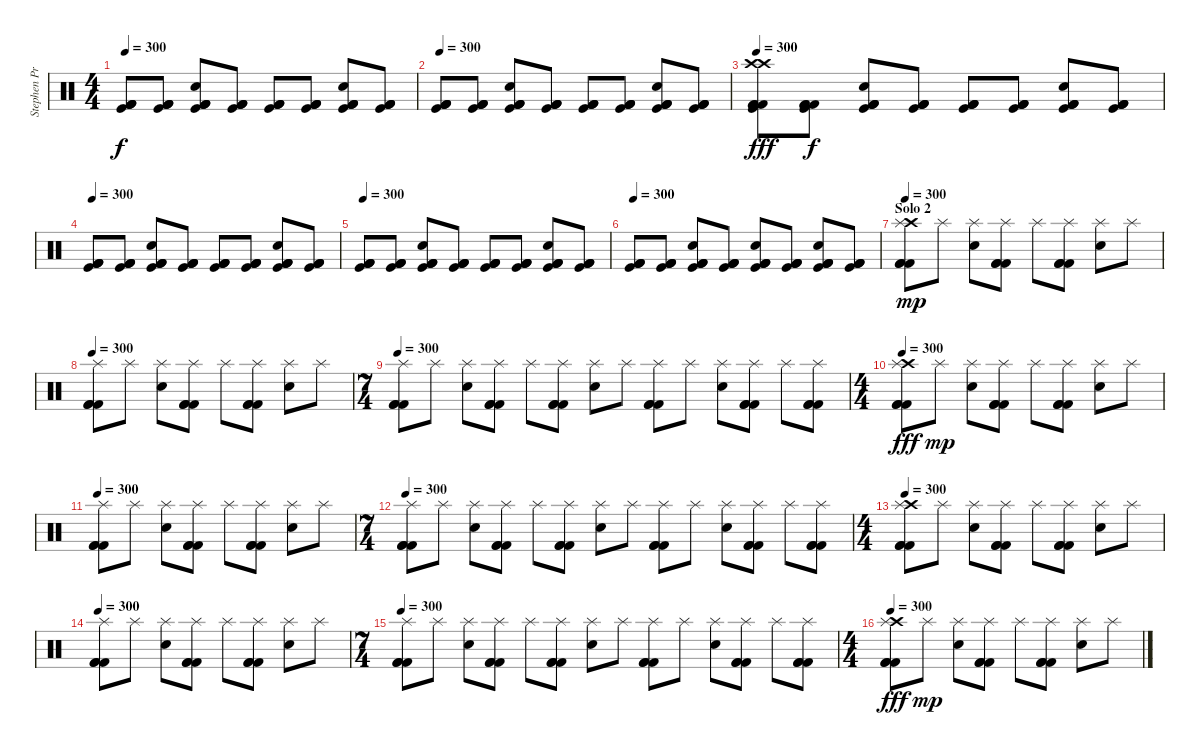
\track ("Stephen Priestly  (Drums)" "Stephen Pr") {instrument percussion}
\staff {score}
\articulation defaults
\ts (4 4)
\tempo 300
\clef neutral
\ks c
("Kick (hit)" "Kick (hit) 2" "Kick (hit) 2" "Kick (hit) 2").8{dy f} ("Kick (hit)" "Kick (hit) 2" "Kick (hit) 2" "Kick (hit) 2").8 ("Electric Snare (hit)" "Kick (hit)" "Kick (hit) 2" "Kick (hit) 2" "Kick (hit) 2").8 ("Kick (hit)" "Kick (hit) 2" "Kick (hit) 2" "Kick (hit) 2").8 ("Kick (hit)" "Kick (hit) 2" "Kick (hit) 2" "Kick (hit) 2").8 ("Kick (hit)" "Kick (hit) 2" "Kick (hit) 2" "Kick (hit) 2").8 ("Electric Snare (hit)" "Kick (hit)" "Kick (hit) 2" "Kick (hit) 2" "Kick (hit) 2").8 ("Kick (hit)" "Kick (hit) 2" "Kick (hit) 2" "Kick (hit) 2").8 |
\tempo 300
("Kick (hit)" "Kick (hit) 2" "Kick (hit) 2" "Kick (hit) 2").8 ("Kick (hit)" "Kick (hit) 2" "Kick (hit) 2" "Kick (hit) 2").8 ("Electric Snare (hit)" "Kick (hit)" "Kick (hit) 2" "Kick (hit) 2" "Kick (hit) 2").8 ("Kick (hit)" "Kick (hit) 2" "Kick (hit) 2" "Kick (hit) 2").8 ("Kick (hit)" "Kick (hit) 2" "Kick (hit) 2" "Kick (hit) 2").8 ("Kick (hit)" "Kick (hit) 2" "Kick (hit) 2" "Kick (hit) 2").8 ("Electric Snare (hit)" "Kick (hit)" "Kick (hit) 2" "Kick (hit) 2" "Kick (hit) 2").8 ("Kick (hit)" "Kick (hit) 2" "Kick (hit) 2" "Kick (hit) 2").8 |
\tempo 300
("Crash high (hit)" "Crash high (hit)" "Kick (hit)" "Kick (hit) 2" "Kick (hit) 2" "Kick (hit) 2").8{dy fff} ("Kick (hit)" "Kick (hit) 2" "Kick (hit) 2" "Kick (hit) 2").8{dy f} ("Electric Snare (hit)" "Kick (hit)" "Kick (hit) 2" "Kick (hit) 2" "Kick (hit) 2").8 ("Kick (hit)" "Kick (hit) 2" "Kick (hit) 2" "Kick (hit) 2").8 ("Kick (hit)" "Kick (hit) 2" "Kick (hit) 2" "Kick (hit) 2").8 ("Kick (hit)" "Kick (hit) 2" "Kick (hit) 2" "Kick (hit) 2").8 ("Electric Snare (hit)" "Kick (hit)" "Kick (hit) 2" "Kick (hit) 2" "Kick (hit) 2").8 ("Kick (hit)" "Kick (hit) 2" "Kick (hit) 2" "Kick (hit) 2").8 |
\tempo 300
("Kick (hit)" "Kick (hit) 2" "Kick (hit) 2" "Kick (hit) 2").8 ("Kick (hit)" "Kick (hit) 2" "Kick (hit) 2" "Kick (hit) 2").8 ("Electric Snare (hit)" "Kick (hit)" "Kick (hit) 2" "Kick (hit) 2" "Kick (hit) 2").8 ("Kick (hit)" "Kick (hit) 2" "Kick (hit) 2" "Kick (hit) 2").8 ("Kick (hit)" "Kick (hit) 2" "Kick (hit) 2" "Kick (hit) 2").8 ("Kick (hit)" "Kick (hit) 2" "Kick (hit) 2" "Kick (hit) 2").8 ("Electric Snare (hit)" "Kick (hit)" "Kick (hit) 2" "Kick (hit) 2" "Kick (hit) 2").8 ("Kick (hit)" "Kick (hit) 2" "Kick (hit) 2" "Kick (hit) 2").8 |
\tempo 300
("Kick (hit)" "Kick (hit) 2" "Kick (hit) 2" "Kick (hit) 2").8 ("Kick (hit)" "Kick (hit) 2" "Kick (hit) 2" "Kick (hit) 2").8 ("Electric Snare (hit)" "Kick (hit)" "Kick (hit) 2" "Kick (hit) 2" "Kick (hit) 2").8 ("Kick (hit)" "Kick (hit) 2" "Kick (hit) 2" "Kick (hit) 2").8 ("Kick (hit)" "Kick (hit) 2" "Kick (hit) 2" "Kick (hit) 2").8 ("Kick (hit)" "Kick (hit) 2" "Kick (hit) 2" "Kick (hit) 2").8 ("Electric Snare (hit)" "Kick (hit)" "Kick (hit) 2" "Kick (hit) 2" "Kick (hit) 2").8 ("Kick (hit)" "Kick (hit) 2" "Kick (hit) 2" "Kick (hit) 2").8 |
\tempo 300
("Kick (hit)" "Kick (hit) 2" "Kick (hit) 2" "Kick (hit) 2").8 ("Kick (hit)" "Kick (hit) 2" "Kick (hit) 2" "Kick (hit) 2").8 ("Electric Snare (hit)" "Kick (hit)" "Kick (hit) 2" "Kick (hit) 2" "Kick (hit) 2").8 ("Kick (hit)" "Kick (hit) 2" "Kick (hit) 2" "Kick (hit) 2").8 ("Electric Snare (hit)" "Kick (hit)" "Kick (hit) 2" "Kick (hit) 2" "Kick (hit) 2").8 ("Kick (hit)" "Kick (hit) 2" "Kick (hit) 2" "Kick (hit) 2").8 ("Electric Snare (hit)" "Kick (hit)" "Kick (hit) 2" "Kick (hit) 2" "Kick (hit) 2").8 ("Kick (hit)" "Kick (hit) 2" "Kick (hit) 2" "Kick (hit) 2").8 |
\section ("" "Solo 2")
\tempo 128
\tempo 300
("Crash high (hit)" "Splash (hit)" "Kick (hit) 2" "Kick (hit) 2" "Kick (hit) 2").8{dy mp} "Splash (hit)".8 ("Splash (hit)" "Electric Snare (hit)").8 ("Splash (hit)" "Kick (hit) 2" "Kick (hit) 2" "Kick (hit) 2").8 "Splash (hit)".8 ("Splash (hit)" "Kick (hit) 2" "Kick (hit) 2" "Kick (hit) 2").8 ("Splash (hit)" "Electric Snare (hit)").8 "Splash (hit)".8 |
\tempo 300
("Splash (hit)" "Kick (hit) 2" "Kick (hit) 2" "Kick (hit) 2").8 "Splash (hit)".8 ("Splash (hit)" "Electric Snare (hit)").8 ("Splash (hit)" "Kick (hit) 2" "Kick (hit) 2" "Kick (hit) 2").8 "Splash (hit)".8 ("Splash (hit)" "Kick (hit) 2" "Kick (hit) 2" "Kick (hit) 2").8 ("Splash (hit)" "Electric Snare (hit)").8 "Splash (hit)".8 |
\ts (7 4)
\tempo 300
("Splash (hit)" "Kick (hit) 2" "Kick (hit) 2" "Kick (hit) 2").8 "Splash (hit)".8 ("Splash (hit)" "Electric Snare (hit)").8 ("Splash (hit)" "Kick (hit) 2" "Kick (hit) 2" "Kick (hit) 2").8 "Splash (hit)".8 ("Splash (hit)" "Kick (hit) 2" "Kick (hit) 2" "Kick (hit) 2").8 ("Splash (hit)" "Electric Snare (hit)").8 "Splash (hit)".8 ("Splash (hit)" "Kick (hit) 2" "Kick (hit) 2" "Kick (hit) 2").8 "Splash (hit)".8 ("Splash (hit)" "Electric Snare (hit)").8 ("Splash (hit)" "Kick (hit) 2" "Kick (hit) 2" "Kick (hit) 2").8 "Splash (hit)".8 ("Splash (hit)" "Kick (hit) 2" "Kick (hit) 2" "Kick (hit) 2").8 |
\ts (4 4)
\tempo 300
("Crash high (hit)" "Splash (hit)" "Kick (hit) 2" "Kick (hit) 2" "Kick (hit) 2").8{dy fff} "Splash (hit)".8{dy mp} ("Splash (hit)" "Electric Snare (hit)").8 ("Splash (hit)" "Kick (hit) 2" "Kick (hit) 2" "Kick (hit) 2").8 "Splash (hit)".8 ("Splash (hit)" "Kick (hit) 2" "Kick (hit) 2" "Kick (hit) 2").8 ("Splash (hit)" "Electric Snare (hit)").8 "Splash (hit)".8 |
\tempo 300
("Splash (hit)" "Kick (hit) 2" "Kick (hit) 2" "Kick (hit) 2").8 "Splash (hit)".8 ("Splash (hit)" "Electric Snare (hit)").8 ("Splash (hit)" "Kick (hit) 2" "Kick (hit) 2" "Kick (hit) 2").8 "Splash (hit)".8 ("Splash (hit)" "Kick (hit) 2" "Kick (hit) 2" "Kick (hit) 2").8 ("Splash (hit)" "Electric Snare (hit)").8 "Splash (hit)".8 |
\ts (7 4)
\tempo 300
("Splash (hit)" "Kick (hit) 2" "Kick (hit) 2" "Kick (hit) 2").8 "Splash (hit)".8 ("Splash (hit)" "Electric Snare (hit)").8 ("Splash (hit)" "Kick (hit) 2" "Kick (hit) 2" "Kick (hit) 2").8 "Splash (hit)".8 ("Splash (hit)" "Kick (hit) 2" "Kick (hit) 2" "Kick (hit) 2").8 ("Splash (hit)" "Electric Snare (hit)").8 "Splash (hit)".8 ("Splash (hit)" "Kick (hit) 2" "Kick (hit) 2" "Kick (hit) 2").8 "Splash (hit)".8 ("Splash (hit)" "Electric Snare (hit)").8 ("Splash (hit)" "Kick (hit) 2" "Kick (hit) 2" "Kick (hit) 2").8 "Splash (hit)".8 ("Splash (hit)" "Kick (hit) 2" "Kick (hit) 2" "Kick (hit) 2").8 |
\ts (4 4)
\tempo 300
("Crash high (hit)" "Splash (hit)" "Kick (hit) 2" "Kick (hit) 2" "Kick (hit) 2").8 "Splash (hit)".8 ("Splash (hit)" "Electric Snare (hit)").8 ("Splash (hit)" "Kick (hit) 2" "Kick (hit) 2" "Kick (hit) 2").8 "Splash (hit)".8 ("Splash (hit)" "Kick (hit) 2" "Kick (hit) 2" "Kick (hit) 2").8 ("Splash (hit)" "Electric Snare (hit)").8 "Splash (hit)".8 |
\tempo 300
("Splash (hit)" "Kick (hit) 2" "Kick (hit) 2" "Kick (hit) 2").8 "Splash (hit)".8 ("Splash (hit)" "Electric Snare (hit)").8 ("Splash (hit)" "Kick (hit) 2" "Kick (hit) 2" "Kick (hit) 2").8 "Splash (hit)".8 ("Splash (hit)" "Kick (hit) 2" "Kick (hit) 2" "Kick (hit) 2").8 ("Splash (hit)" "Electric Snare (hit)").8 "Splash (hit)".8 |
\ts (7 4)
\tempo 300
("Splash (hit)" "Kick (hit) 2" "Kick (hit) 2" "Kick (hit) 2").8 "Splash (hit)".8 ("Splash (hit)" "Electric Snare (hit)").8 ("Splash (hit)" "Kick (hit) 2" "Kick (hit) 2" "Kick (hit) 2").8 "Splash (hit)".8 ("Splash (hit)" "Kick (hit) 2" "Kick (hit) 2" "Kick (hit) 2").8 ("Splash (hit)" "Electric Snare (hit)").8 "Splash (hit)".8 ("Splash (hit)" "Kick (hit) 2" "Kick (hit) 2" "Kick (hit) 2").8 "Splash (hit)".8 ("Splash (hit)" "Electric Snare (hit)").8 ("Splash (hit)" "Kick (hit) 2" "Kick (hit) 2" "Kick (hit) 2").8 "Splash (hit)".8 ("Splash (hit)" "Kick (hit) 2" "Kick (hit) 2" "Kick (hit) 2").8 |
\ts (4 4)
\tempo 300
("Crash high (hit)" "Splash (hit)" "Kick (hit) 2" "Kick (hit) 2" "Kick (hit) 2").8{dy fff} "Splash (hit)".8{dy mp} ("Splash (hit)" "Electric Snare (hit)").8 ("Splash (hit)" "Kick (hit) 2" "Kick (hit) 2" "Kick (hit) 2").8 "Splash (hit)".8 ("Splash (hit)" "Kick (hit) 2" "Kick (hit) 2" "Kick (hit) 2").8 ("Splash (hit)" "Electric Snare (hit)").8 "Splash (hit)".8
